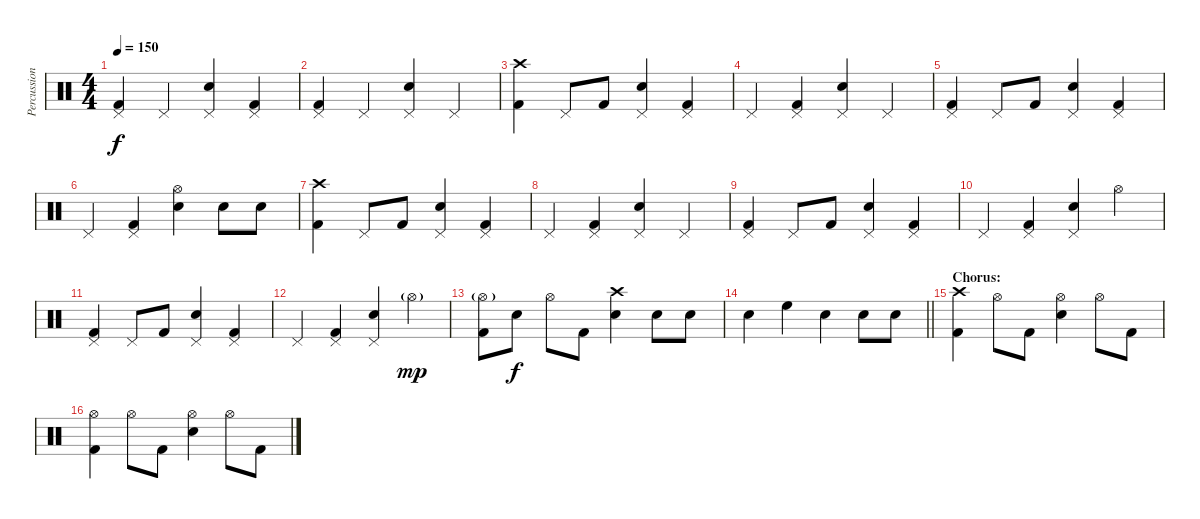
\track ("Percussion" "Percussion") {instrument percussion}
\staff {score}
\articulation defaults
\ts (4 4)
\tempo 150
\clef neutral
\ks c
("Pedal Hi-Hat (hit)" "Kick (hit) 2").4{dy f} "Pedal Hi-Hat (hit)".4 ("Pedal Hi-Hat (hit)" "Electric Snare (hit)").4 ("Pedal Hi-Hat (hit)" "Kick (hit) 2").4 |
("Pedal Hi-Hat (hit)" "Kick (hit) 2").4 "Pedal Hi-Hat (hit)".4 ("Pedal Hi-Hat (hit)" "Electric Snare (hit)").4 "Pedal Hi-Hat (hit)".4 |
("Crash high (hit)" "Kick (hit) 2").4 "Pedal Hi-Hat (hit)".8 "Kick (hit) 2".8 ("Pedal Hi-Hat (hit)" "Electric Snare (hit)").4 ("Pedal Hi-Hat (hit)" "Kick (hit) 2").4 |
"Pedal Hi-Hat (hit)".4 ("Pedal Hi-Hat (hit)" "Kick (hit) 2").4 ("Pedal Hi-Hat (hit)" "Electric Snare (hit)").4 "Pedal Hi-Hat (hit)".4 |
("Pedal Hi-Hat (hit)" "Kick (hit) 2").4 "Pedal Hi-Hat (hit)".8 "Kick (hit) 2".8 ("Pedal Hi-Hat (hit)" "Electric Snare (hit)").4 ("Pedal Hi-Hat (hit)" "Kick (hit) 2").4 |
"Pedal Hi-Hat (hit)".4 ("Pedal Hi-Hat (hit)" "Kick (hit) 2").4 ("Hi-Hat (open)" "Electric Snare (hit)").4 "Electric Snare (hit)".8 "Electric Snare (hit)".8 |
("Crash high (hit)" "Kick (hit) 2").4 "Pedal Hi-Hat (hit)".8 "Kick (hit) 2".8 ("Pedal Hi-Hat (hit)" "Electric Snare (hit)").4 ("Pedal Hi-Hat (hit)" "Kick (hit) 2").4 |
"Pedal Hi-Hat (hit)".4 ("Pedal Hi-Hat (hit)" "Kick (hit) 2").4 ("Pedal Hi-Hat (hit)" "Electric Snare (hit)").4 "Pedal Hi-Hat (hit)".4 |
("Pedal Hi-Hat (hit)" "Kick (hit) 2").4 "Pedal Hi-Hat (hit)".8 "Kick (hit) 2".8 ("Pedal Hi-Hat (hit)" "Electric Snare (hit)").4 ("Pedal Hi-Hat (hit)" "Kick (hit) 2").4 |
"Pedal Hi-Hat (hit)".4 ("Pedal Hi-Hat (hit)" "Kick (hit) 2").4 ("Pedal Hi-Hat (hit)" "Electric Snare (hit)").4 "Hi-Hat (open)".4 |
("Pedal Hi-Hat (hit)" "Kick (hit) 2").4 "Pedal Hi-Hat (hit)".8 "Kick (hit) 2".8 ("Pedal Hi-Hat (hit)" "Electric Snare (hit)").4 ("Pedal Hi-Hat (hit)" "Kick (hit) 2").4 |
"Pedal Hi-Hat (hit)".4 ("Pedal Hi-Hat (hit)" "Kick (hit) 2").4 ("Pedal Hi-Hat (hit)" "Electric Snare (hit)").4 "Hi-Hat (open)"{g}.4{dy mp} |
("Hi-Hat (open)"{g} "Kick (hit) 2").8 "Electric Snare (hit)".8{dy f} "Hi-Hat (open)".8 "Kick (hit) 2".8 ("Crash high (hit)" "Electric Snare (hit)").4 "Electric Snare (hit)".8 "Electric Snare (hit)".8 |
\barLineRight lightlight "Electric Snare (hit)".4 "High Floor Tom (hit)".4 "Electric Snare (hit)".4 "Electric Snare (hit)".8 "Electric Snare (hit)".8
|
\section ("" "Chorus:")
("Crash high (hit)" "Kick (hit) 2").4 "Hi-Hat (open)".8 "Kick (hit) 2".8 ("Hi-Hat (open)" "Electric Snare (hit)").4 "Hi-Hat (open)".8 "Kick (hit) 2".8 |
("Hi-Hat (open)" "Kick (hit) 2").4 "Hi-Hat (open)".8 "Kick (hit) 2".8 ("Hi-Hat (open)" "Electric Snare (hit)").4 "Hi-Hat (open)".8 "Kick (hit) 2".8
